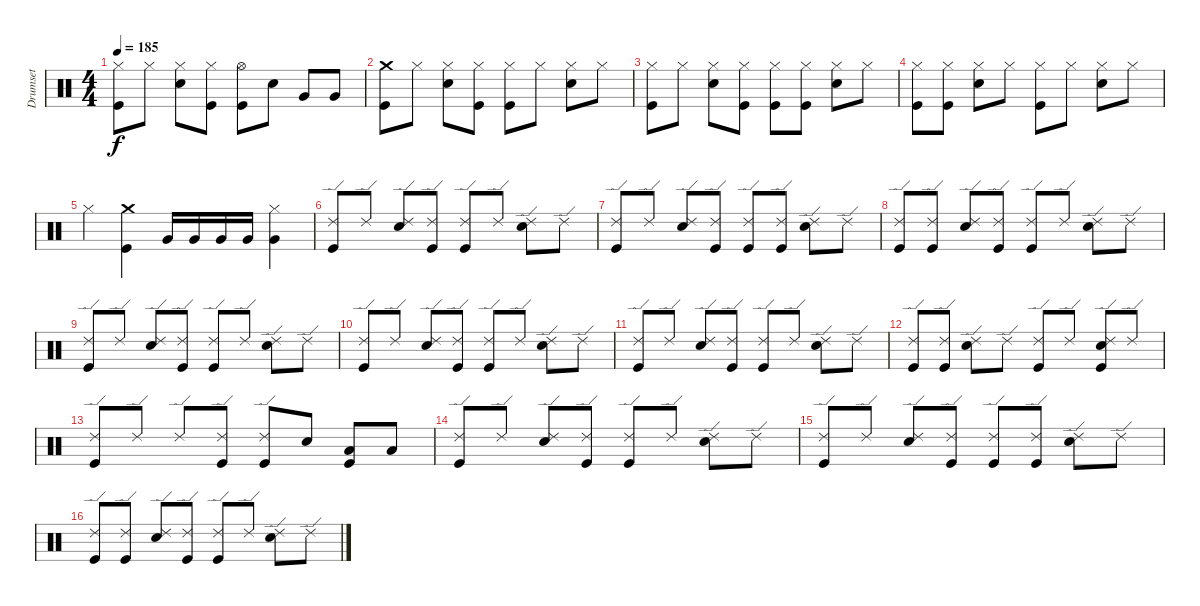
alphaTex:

\track ("Drumset" "Drumset") {instrument percussion}
\staff {score}
\articulation defaults
\ts (4 4)
\tempo 185
\clef neutral
\ks c
("Hi-Hat (closed)" "Kick (hit)").8{dy f} "Hi-Hat (closed)".8 ("Hi-Hat (closed)" "Snare (hit) 2").8 ("Hi-Hat (closed)" "Kick (hit)").8 ("Hi-Hat (open)" "Kick (hit)").8 "Snare (hit) 2".8 "Very Low Tom (hit)".8 "Very Low Tom (hit)".8 |
("Crash medium (hit)" "Kick (hit)").8 "Hi-Hat (closed)".8 ("Hi-Hat (closed)" "Snare (hit) 2").8 ("Hi-Hat (closed)" "Kick (hit)").8 ("Hi-Hat (closed)" "Kick (hit)").8 "Hi-Hat (closed)".8 ("Hi-Hat (closed)" "Snare (hit) 2").8 "Hi-Hat (closed)".8 |
("Hi-Hat (closed)" "Kick (hit)").8 "Hi-Hat (closed)".8 ("Hi-Hat (closed)" "Snare (hit) 2").8 ("Hi-Hat (closed)" "Kick (hit)").8 ("Hi-Hat (closed)" "Kick (hit)").8 ("Hi-Hat (closed)" "Kick (hit)").8 ("Hi-Hat (closed)" "Snare (hit) 2").8 "Hi-Hat (closed)".8 |
("Hi-Hat (closed)" "Kick (hit)").8 ("Hi-Hat (closed)" "Kick (hit)").8 ("Hi-Hat (closed)" "Snare (hit) 2").8 "Hi-Hat (closed)".8 ("Hi-Hat (closed)" "Kick (hit)").8 "Hi-Hat (closed)".8 ("Hi-Hat (closed)" "Snare (hit) 2").8 "Hi-Hat (closed)".8 |
"Hi-Hat (closed)".4 ("Crash medium (hit)" "Kick (hit)").4 "Very Low Tom (hit)".16 "Very Low Tom (hit)".16 "Very Low Tom (hit)".16 "Very Low Tom (hit)".16 ("Hi-Hat (closed)" "Very Low Tom (hit)").4 |
("Ride (edge) 2" "Kick (hit)").8 "Ride (edge) 2".8 ("Ride (edge) 2" "Snare (hit) 2").8 ("Ride (edge) 2" "Kick (hit)").8 ("Ride (edge) 2" "Kick (hit)").8 "Ride (edge) 2".8 ("Ride (edge) 2" "Snare (hit) 2").8 "Ride (edge) 2".8 |
("Ride (edge) 2" "Kick (hit)").8 "Ride (edge) 2".8 ("Ride (edge) 2" "Snare (hit) 2").8 ("Ride (edge) 2" "Kick (hit)").8 ("Ride (edge) 2" "Kick (hit)").8 ("Ride (edge) 2" "Kick (hit)").8 ("Ride (edge) 2" "Snare (hit) 2").8 "Ride (edge) 2".8 |
("Ride (edge) 2" "Kick (hit)").8 ("Ride (edge) 2" "Kick (hit)").8 ("Ride (edge) 2" "Snare (hit) 2").8 ("Ride (edge) 2" "Kick (hit)").8 ("Ride (edge) 2" "Kick (hit)").8 "Ride (edge) 2".8 ("Ride (edge) 2" "Snare (hit) 2").8 "Ride (edge) 2".8 |
("Ride (edge) 2" "Kick (hit)").8 "Ride (edge) 2".8 ("Ride (edge) 2" "Snare (hit) 2").8 ("Ride (edge) 2" "Kick (hit)").8 ("Ride (edge) 2" "Kick (hit)").8 "Ride (edge) 2".8 ("Ride (edge) 2" "Snare (hit) 2").8 "Ride (edge) 2".8 |
("Ride (edge) 2" "Kick (hit)").8 "Ride (edge) 2".8 ("Ride (edge) 2" "Snare (hit) 2").8 ("Ride (edge) 2" "Kick (hit)").8 ("Ride (edge) 2" "Kick (hit)").8 "Ride (edge) 2".8 ("Ride (edge) 2" "Snare (hit) 2").8 "Ride (edge) 2".8 |
("Ride (edge) 2" "Kick (hit)").8 "Ride (edge) 2".8 ("Ride (edge) 2" "Snare (hit) 2").8 ("Ride (edge) 2" "Kick (hit)").8 ("Ride (edge) 2" "Kick (hit)").8 "Ride (edge) 2".8 ("Ride (edge) 2" "Snare (hit) 2").8 "Ride (edge) 2".8 |
("Ride (edge) 2" "Kick (hit)").8 ("Ride (edge) 2" "Kick (hit)").8 ("Ride (edge) 2" "Snare (hit) 2").8 "Ride (edge) 2".8 ("Ride (edge) 2" "Kick (hit)").8 "Ride (edge) 2".8 ("Ride (edge) 2" "Snare (hit) 2" "Kick (hit)").8 "Ride (edge) 2".8 |
("Ride (edge) 2" "Kick (hit)").8 "Ride (edge) 2".8 "Ride (edge) 2".8 ("Ride (edge) 2" "Kick (hit)").8 ("Ride (edge) 2" "Kick (hit)").8 "Snare (hit) 2".8 ("Low Tom (hit)" "Kick (hit)").8 "Low Tom (hit)".8 |
("Ride (edge) 2" "Kick (hit)").8 "Ride (edge) 2".8 ("Ride (edge) 2" "Snare (hit) 2").8 ("Ride (edge) 2" "Kick (hit)").8 ("Ride (edge) 2" "Kick (hit)").8 "Ride (edge) 2".8 ("Ride (edge) 2" "Snare (hit) 2").8 "Ride (edge) 2".8 |
("Ride (edge) 2" "Kick (hit)").8 "Ride (edge) 2".8 ("Ride (edge) 2" "Snare (hit) 2").8 ("Ride (edge) 2" "Kick (hit)").8 ("Ride (edge) 2" "Kick (hit)").8 ("Ride (edge) 2" "Kick (hit)").8 ("Ride (edge) 2" "Snare (hit) 2").8 "Ride (edge) 2".8 |
("Ride (edge) 2" "Kick (hit)").8 ("Ride (edge) 2" "Kick (hit)").8 ("Ride (edge) 2" "Snare (hit) 2").8 ("Ride (edge) 2" "Kick (hit)").8 ("Ride (edge) 2" "Kick (hit)").8 "Ride (edge) 2".8 ("Ride (edge) 2" "Snare (hit) 2").8 "Ride (edge) 2".8
